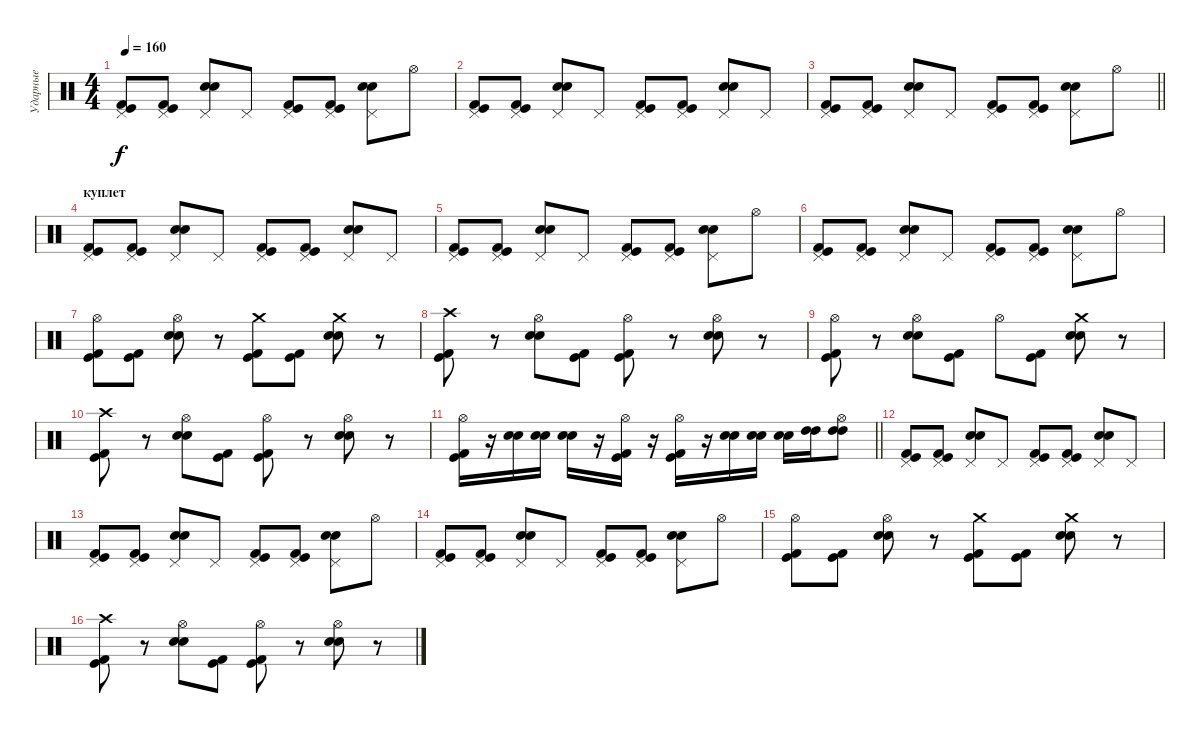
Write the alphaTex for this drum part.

\track ("Ударные" "Ударные") {instrument percussion}
\staff {score}
\articulation defaults
\ts (4 4)
\tempo 160
\clef neutral
\ks c
("Pedal Hi-Hat (hit)" "Kick (hit)" "Kick (hit) 2").8{dy f} ("Pedal Hi-Hat (hit)" "Kick (hit)" "Kick (hit) 2").8 ("Pedal Hi-Hat (hit)" "Snare (hit) 2" "Electric Snare (hit)").8 "Pedal Hi-Hat (hit)".8 ("Pedal Hi-Hat (hit)" "Kick (hit)" "Kick (hit) 2").8 ("Pedal Hi-Hat (hit)" "Kick (hit)" "Kick (hit) 2").8 ("Pedal Hi-Hat (hit)" "Snare (hit) 2" "Electric Snare (hit)").8 "Hi-Hat (open)".8 |
("Pedal Hi-Hat (hit)" "Kick (hit)" "Kick (hit) 2").8 ("Pedal Hi-Hat (hit)" "Kick (hit)" "Kick (hit) 2").8 ("Pedal Hi-Hat (hit)" "Snare (hit) 2" "Electric Snare (hit)").8 "Pedal Hi-Hat (hit)".8 ("Pedal Hi-Hat (hit)" "Kick (hit)" "Kick (hit) 2").8 ("Pedal Hi-Hat (hit)" "Kick (hit)" "Kick (hit) 2").8 ("Pedal Hi-Hat (hit)" "Snare (hit) 2" "Electric Snare (hit)").8 "Pedal Hi-Hat (hit)".8 |
\barLineRight lightlight
("Pedal Hi-Hat (hit)" "Kick (hit)" "Kick (hit) 2").8 ("Pedal Hi-Hat (hit)" "Kick (hit)" "Kick (hit) 2").8 ("Pedal Hi-Hat (hit)" "Snare (hit) 2" "Electric Snare (hit)").8 "Pedal Hi-Hat (hit)".8 ("Pedal Hi-Hat (hit)" "Kick (hit)" "Kick (hit) 2").8 ("Pedal Hi-Hat (hit)" "Kick (hit)" "Kick (hit) 2").8 ("Pedal Hi-Hat (hit)" "Snare (hit) 2" "Electric Snare (hit)").8 "Hi-Hat (open)".8 |
\section ("" "куплет")
("Pedal Hi-Hat (hit)" "Kick (hit)" "Kick (hit) 2").8 ("Pedal Hi-Hat (hit)" "Kick (hit)" "Kick (hit) 2").8 ("Pedal Hi-Hat (hit)" "Snare (hit) 2" "Electric Snare (hit)").8 "Pedal Hi-Hat (hit)".8 ("Pedal Hi-Hat (hit)" "Kick (hit)" "Kick (hit) 2").8 ("Pedal Hi-Hat (hit)" "Kick (hit)" "Kick (hit) 2").8 ("Pedal Hi-Hat (hit)" "Snare (hit) 2" "Electric Snare (hit)").8 "Pedal Hi-Hat (hit)".8 |
("Pedal Hi-Hat (hit)" "Kick (hit)" "Kick (hit) 2").8 ("Pedal Hi-Hat (hit)" "Kick (hit)" "Kick (hit) 2").8 ("Pedal Hi-Hat (hit)" "Snare (hit) 2" "Electric Snare (hit)").8 "Pedal Hi-Hat (hit)".8 ("Pedal Hi-Hat (hit)" "Kick (hit)" "Kick (hit) 2").8 ("Pedal Hi-Hat (hit)" "Kick (hit)" "Kick (hit) 2").8 ("Pedal Hi-Hat (hit)" "Snare (hit) 2" "Electric Snare (hit)").8 "Hi-Hat (open)".8 |
("Pedal Hi-Hat (hit)" "Kick (hit)" "Kick (hit) 2").8 ("Pedal Hi-Hat (hit)" "Kick (hit)" "Kick (hit) 2").8 ("Pedal Hi-Hat (hit)" "Snare (hit) 2" "Electric Snare (hit)").8 "Pedal Hi-Hat (hit)".8 ("Pedal Hi-Hat (hit)" "Kick (hit)" "Kick (hit) 2").8 ("Pedal Hi-Hat (hit)" "Kick (hit)" "Kick (hit) 2").8 ("Pedal Hi-Hat (hit)" "Snare (hit) 2" "Electric Snare (hit)").8 "Hi-Hat (open)".8 |
("Hi-Hat (open)" "Kick (hit)" "Kick (hit) 2").8 ("Kick (hit)" "Kick (hit) 2").8 ("Hi-Hat (open)" "Snare (hit) 2" "Electric Snare (hit)").8 r.8 ("Crash medium (hit)" "Kick (hit)" "Kick (hit) 2").8 ("Kick (hit)" "Kick (hit) 2").8 ("Crash medium (hit)" "Snare (hit) 2" "Electric Snare (hit)").8 r.8 |
("Crash high (hit)" "Kick (hit) 2" "Kick (hit)").8 r.8 ("Hi-Hat (open)" "Electric Snare (hit)" "Snare (hit) 2").8 ("Kick (hit) 2" "Kick (hit)").8 ("Hi-Hat (open)" "Kick (hit) 2" "Kick (hit)").8 r.8 ("Hi-Hat (open)" "Electric Snare (hit)" "Snare (hit) 2").8 r.8 |
("Hi-Hat (open)" "Kick (hit) 2" "Kick (hit)").8 r.8 ("Hi-Hat (open)" "Electric Snare (hit)" "Snare (hit) 2").8 ("Kick (hit) 2" "Kick (hit)").8 "Hi-Hat (open)".8 ("Kick (hit) 2" "Kick (hit)").8 ("Crash medium (hit)" "Electric Snare (hit)" "Snare (hit) 2").8 r.8 |
("Crash high (hit)" "Kick (hit) 2" "Kick (hit)").8 r.8 ("Hi-Hat (open)" "Electric Snare (hit)" "Snare (hit) 2").8 ("Kick (hit) 2" "Kick (hit)").8 ("Hi-Hat (open)" "Kick (hit) 2" "Kick (hit)").8 r.8 ("Hi-Hat (open)" "Electric Snare (hit)" "Snare (hit) 2").8 r.8 |
\barLineRight lightlight
("Hi-Hat (open)" "Kick (hit) 2" "Kick (hit)").16 r.16 ("Snare (hit) 2" "Electric Snare (hit)").16 ("Snare (hit) 2" "Electric Snare (hit)").16 ("Snare (hit) 2" "Electric Snare (hit)").16 r.16 ("Hi-Hat (open)" "Kick (hit)" "Kick (hit) 2").16 r.16 ("Hi-Hat (open)" "Kick (hit)" "Kick (hit) 2").16 r.16 ("Snare (hit) 2" "Electric Snare (hit)").16 ("Snare (hit) 2" "Electric Snare (hit)").16 ("Snare (hit) 2" "Electric Snare (hit)").16 ("High Tom (hit)" "High Tom (hit)").16 ("Hi-Hat (open)" "High Tom (hit)" "High Tom (hit)").8 |
("Pedal Hi-Hat (hit)" "Kick (hit)" "Kick (hit) 2").8 ("Pedal Hi-Hat (hit)" "Kick (hit)" "Kick (hit) 2").8 ("Pedal Hi-Hat (hit)" "Snare (hit) 2" "Electric Snare (hit)").8 "Pedal Hi-Hat (hit)".8 ("Pedal Hi-Hat (hit)" "Kick (hit)" "Kick (hit) 2").8 ("Pedal Hi-Hat (hit)" "Kick (hit)" "Kick (hit) 2").8 ("Pedal Hi-Hat (hit)" "Snare (hit) 2" "Electric Snare (hit)").8 "Pedal Hi-Hat (hit)".8 |
("Pedal Hi-Hat (hit)" "Kick (hit)" "Kick (hit) 2").8 ("Pedal Hi-Hat (hit)" "Kick (hit)" "Kick (hit) 2").8 ("Pedal Hi-Hat (hit)" "Snare (hit) 2" "Electric Snare (hit)").8 "Pedal Hi-Hat (hit)".8 ("Pedal Hi-Hat (hit)" "Kick (hit)" "Kick (hit) 2").8 ("Pedal Hi-Hat (hit)" "Kick (hit)" "Kick (hit) 2").8 ("Pedal Hi-Hat (hit)" "Snare (hit) 2" "Electric Snare (hit)").8 "Hi-Hat (open)".8 |
("Pedal Hi-Hat (hit)" "Kick (hit)" "Kick (hit) 2").8 ("Pedal Hi-Hat (hit)" "Kick (hit)" "Kick (hit) 2").8 ("Pedal Hi-Hat (hit)" "Snare (hit) 2" "Electric Snare (hit)").8 "Pedal Hi-Hat (hit)".8 ("Pedal Hi-Hat (hit)" "Kick (hit)" "Kick (hit) 2").8 ("Pedal Hi-Hat (hit)" "Kick (hit)" "Kick (hit) 2").8 ("Pedal Hi-Hat (hit)" "Snare (hit) 2" "Electric Snare (hit)").8 "Hi-Hat (open)".8 |
("Hi-Hat (open)" "Kick (hit)" "Kick (hit) 2").8 ("Kick (hit)" "Kick (hit) 2").8 ("Hi-Hat (open)" "Snare (hit) 2" "Electric Snare (hit)").8 r.8 ("Crash medium (hit)" "Kick (hit)" "Kick (hit) 2").8 ("Kick (hit)" "Kick (hit) 2").8 ("Crash medium (hit)" "Snare (hit) 2" "Electric Snare (hit)").8 r.8 |
("Crash high (hit)" "Kick (hit) 2" "Kick (hit)").8 r.8 ("Hi-Hat (open)" "Electric Snare (hit)" "Snare (hit) 2").8 ("Kick (hit) 2" "Kick (hit)").8 ("Hi-Hat (open)" "Kick (hit) 2" "Kick (hit)").8 r.8 ("Hi-Hat (open)" "Electric Snare (hit)" "Snare (hit) 2").8 r.8
